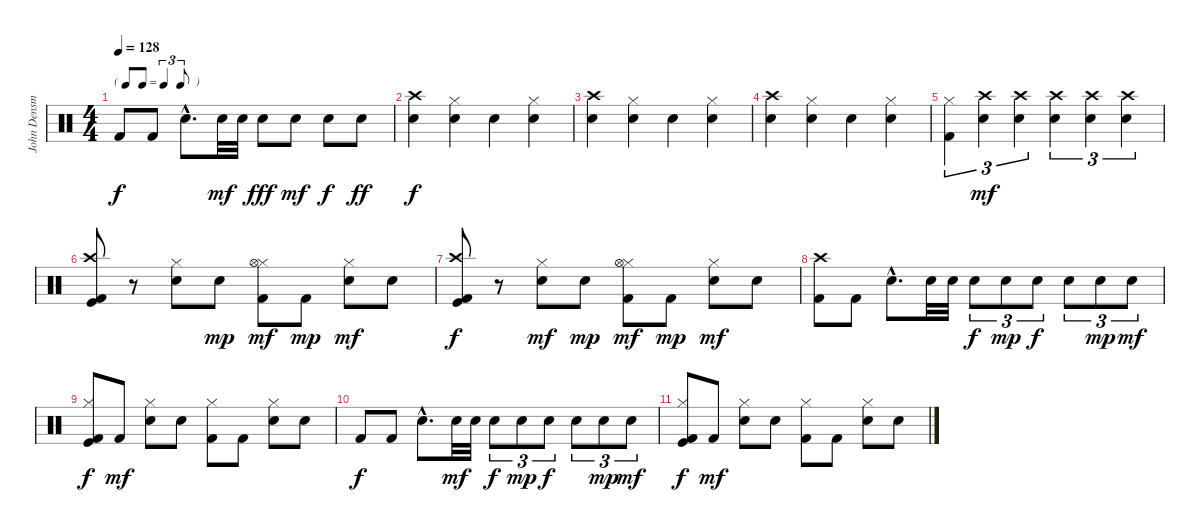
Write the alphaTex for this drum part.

\track ("John Densmore" "John Densm") {instrument percussion}
\staff {score}
\articulation defaults
\ts (4 4)
\tf triplet8th
\tempo 128
\clef neutral
\ks c "Kick (hit) 2".8{dy f} "Kick (hit) 2".8 "Electric Snare (hit)"{hac}.8{d} "Snare (hit) 2".32{dy mf} "Electric Snare (hit)".32 "Electric Snare (hit)".8{dy fff} "Electric Snare (hit)".8{dy mf} "Electric Snare (hit)".8{dy f} "Electric Snare (hit)".8{dy ff}
|
("Electric Snare (hit)" "Crash high (hit)").4{dy f} ("Snare (hit) 2" "Hi-Hat (closed)").4 "Electric Snare (hit)".4 ("Snare (hit) 2" "Hi-Hat (closed)").4 |
("Electric Snare (hit)" "Crash high (hit)").4 ("Snare (hit) 2" "Hi-Hat (closed)").4 "Electric Snare (hit)".4 ("Snare (hit) 2" "Hi-Hat (closed)").4 |
("Electric Snare (hit)" "Crash high (hit)").4 ("Electric Snare (hit)" "Hi-Hat (closed)").4 "Electric Snare (hit)".4 ("Snare (hit) 2" "Hi-Hat (closed)").4 |
("Kick (hit) 2" "Hi-Hat (closed)").4{tu (3 2)} ("Electric Snare (hit)" "Crash high (hit)").4{tu (3 2) dy mf} ("Electric Snare (hit)" "Crash high (hit)").4{tu (3 2)} ("Electric Snare (hit)" "Crash high (hit)").4{tu (3 2)} ("Electric Snare (hit)" "Crash high (hit)").4{tu (3 2)} ("Electric Snare (hit)" "Crash high (hit)").4{tu (3 2)} |
("Kick (hit) 2" "Kick (hit)" "Crash high (hit)").8 r.8 ("Electric Snare (hit)" "Hi-Hat (closed)").8 "Electric Snare (hit)".8{dy mp} ("Kick (hit) 2" "Hi-Hat (closed)" "Hi-Hat (open)").8{dy mf} "Kick (hit) 2".8{dy mp} ("Electric Snare (hit)" "Hi-Hat (closed)").8{dy mf} "Electric Snare (hit)".8 |
("Kick (hit) 2" "Kick (hit)" "Crash high (hit)").8{dy f} r.8 ("Electric Snare (hit)" "Hi-Hat (closed)").8{dy mf} "Electric Snare (hit)".8{dy mp} ("Kick (hit) 2" "Hi-Hat (closed)" "Hi-Hat (open)").8{dy mf} "Kick (hit) 2".8{dy mp} ("Electric Snare (hit)" "Hi-Hat (closed)").8{dy mf} "Electric Snare (hit)".8 |
("Kick (hit) 2" "Crash high (hit)").8 "Kick (hit) 2".8 "Electric Snare (hit)"{hac}.8{d} "Snare (hit) 2".32 "Electric Snare (hit)".32 "Electric Snare (hit)".8{tu (3 2) dy f} "Electric Snare (hit)".8{tu (3 2) dy mp} "Electric Snare (hit)".8{tu (3 2) dy f} "Snare (hit) 2".8{tu (3 2)} "Snare (hit) 2".8{tu (3 2) dy mp} "Snare (hit) 2".8{tu (3 2) dy mf} |
("Kick (hit) 2" "Hi-Hat (closed)" "Kick (hit)").8{dy f} "Kick (hit) 2".8{dy mf} ("Electric Snare (hit)" "Hi-Hat (closed)").8 "Electric Snare (hit)".8 ("Kick (hit) 2" "Hi-Hat (closed)").8 "Kick (hit) 2".8 ("Electric Snare (hit)" "Hi-Hat (closed)").8 "Electric Snare (hit)".8 |
"Kick (hit) 2".8{dy f} "Kick (hit) 2".8 "Electric Snare (hit)"{hac}.8{d} "Snare (hit) 2".32{dy mf} "Electric Snare (hit)".32 "Electric Snare (hit)".8{tu (3 2) dy f} "Electric Snare (hit)".8{tu (3 2) dy mp} "Electric Snare (hit)".8{tu (3 2) dy f} "Snare (hit) 2".8{tu (3 2)} "Snare (hit) 2".8{tu (3 2) dy mp} "Snare (hit) 2".8{tu (3 2) dy mf} |
("Kick (hit) 2" "Hi-Hat (closed)" "Kick (hit)").8{dy f} "Kick (hit) 2".8{dy mf} ("Electric Snare (hit)" "Hi-Hat (closed)").8 "Electric Snare (hit)".8 ("Kick (hit) 2" "Hi-Hat (closed)").8 "Kick (hit) 2".8 ("Electric Snare (hit)" "Hi-Hat (closed)").8 "Electric Snare (hit)".8
